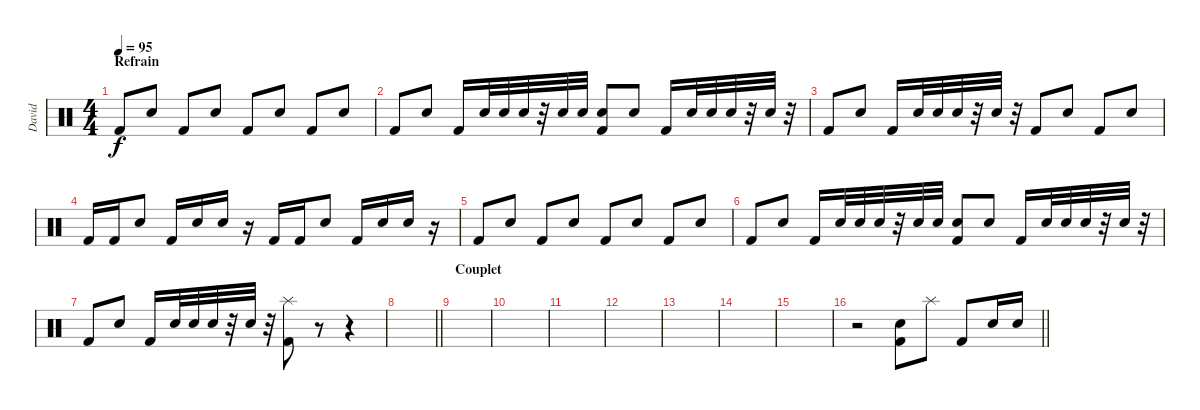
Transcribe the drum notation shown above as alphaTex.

\track ("David" "David") {instrument percussion}
\staff {score}
\articulation defaults
\ts (4 4)
\section ("" "Refrain")
\tempo 95
\clef neutral
\ks c "Kick (hit) 2".8{dy f} "Electric Snare (hit)".8 "Kick (hit) 2".8 "Electric Snare (hit)".8 "Kick (hit) 2".8 "Electric Snare (hit)".8 "Kick (hit) 2".8 "Electric Snare (hit)".8
|
"Kick (hit) 2".8 "Electric Snare (hit)".8 "Kick (hit) 2".16 "Electric Snare (hit)".32 "Electric Snare (hit)".32 "Electric Snare (hit)".32 r.32 "Electric Snare (hit)".32 "Electric Snare (hit)".32 ("Electric Snare (hit)" "Kick (hit) 2").8 "Electric Snare (hit)".8 "Kick (hit) 2".16 "Electric Snare (hit)".32 "Electric Snare (hit)".32 "Electric Snare (hit)".32 r.32 "Electric Snare (hit)".32 r.32 |
"Kick (hit) 2".8 "Electric Snare (hit)".8 "Kick (hit) 2".16 "Electric Snare (hit)".32 "Electric Snare (hit)".32 "Electric Snare (hit)".32 r.32 "Electric Snare (hit)".32 r.32 "Kick (hit) 2".8 "Electric Snare (hit)".8 "Kick (hit) 2".8 "Electric Snare (hit)".8 |
"Kick (hit) 2".16 "Kick (hit) 2".16 "Electric Snare (hit)".8 "Kick (hit) 2".16 "Electric Snare (hit)".16 "Electric Snare (hit)".16 r.16 "Kick (hit) 2".16 "Kick (hit) 2".16 "Electric Snare (hit)".8 "Kick (hit) 2".16 "Electric Snare (hit)".16 "Electric Snare (hit)".16 r.16 |
"Kick (hit) 2".8 "Electric Snare (hit)".8 "Kick (hit) 2".8 "Electric Snare (hit)".8 "Kick (hit) 2".8 "Electric Snare (hit)".8 "Kick (hit) 2".8 "Electric Snare (hit)".8 |
"Kick (hit) 2".8 "Electric Snare (hit)".8 "Kick (hit) 2".16 "Electric Snare (hit)".32 "Electric Snare (hit)".32 "Electric Snare (hit)".32 r.32 "Electric Snare (hit)".32 "Electric Snare (hit)".32 ("Electric Snare (hit)" "Kick (hit) 2").8 "Electric Snare (hit)".8 "Kick (hit) 2".16 "Electric Snare (hit)".32 "Electric Snare (hit)".32 "Electric Snare (hit)".32 r.32 "Electric Snare (hit)".32 r.32 |
"Kick (hit) 2".8 "Electric Snare (hit)".8 "Kick (hit) 2".16 "Electric Snare (hit)".32 "Electric Snare (hit)".32 "Electric Snare (hit)".32 r.32 "Electric Snare (hit)".32 r.32 ("Splash (hit)" "Kick (hit) 2").8 r.8 r.4 |
\barLineRight lightlight
|
\section ("" "Couplet")
|
|
|
|
|
|
|
\barLineRight lightlight
r.2 ("Electric Snare (hit)" "Kick (hit) 2").8 "Splash (hit)".8 "Kick (hit) 2".8 "Electric Snare (hit)".16 "Electric Snare (hit)".16
